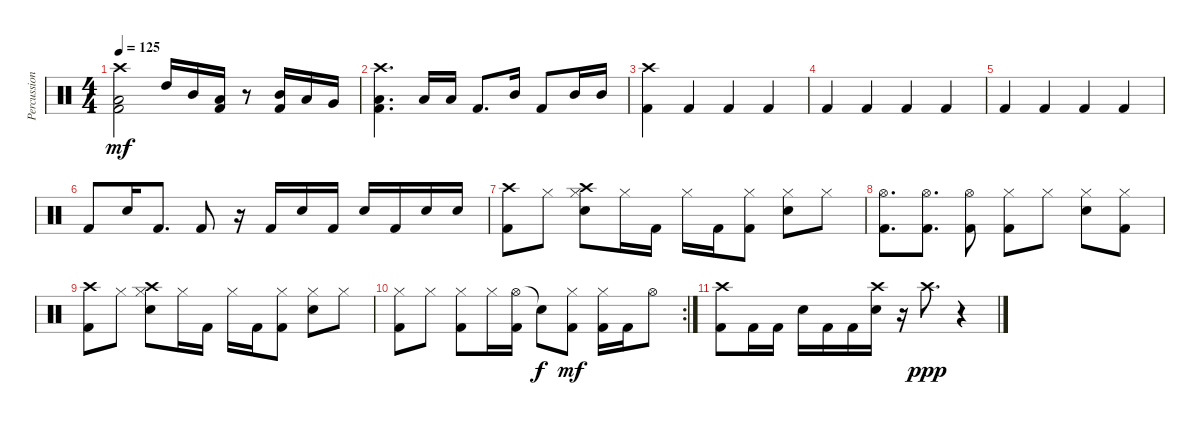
\track ("Percussion" "Percussion") {instrument percussion}
\staff {score}
\articulation defaults
\ts (4 4)
\tempo 125
\clef neutral
\ks c
("Crash high (hit)" "Low Floor Tom (hit)" "Kick (hit) 2").2{dy mf} "High Tom (hit)".16 "Mid Tom (hit)".16 ("Low Tom (hit)" "Kick (hit) 2").16 r.8 ("Mid Tom (hit)" "Kick (hit) 2").16 "Low Tom (hit)".16 "Very Low Tom (hit)".16 |
("Crash high (hit)" "Low Floor Tom (hit)" "Kick (hit) 2").4{d} "Low Tom (hit)".16 "Low Tom (hit)".16 "Kick (hit) 2".8{d} "Mid Tom (hit)".16 "Kick (hit) 2".8 "Mid Tom (hit)".16 "Mid Tom (hit)".16 |
("Crash high (hit)" "Kick (hit) 2").4 "Kick (hit) 2".4 "Kick (hit) 2".4 "Kick (hit) 2".4 |
"Kick (hit) 2".4 "Kick (hit) 2".4 "Kick (hit) 2".4 "Kick (hit) 2".4 |
"Kick (hit) 2".4 "Kick (hit) 2".4 "Kick (hit) 2".4 "Kick (hit) 2".4 |
"Kick (hit) 2".8 "Electric Snare (hit)".16 "Kick (hit) 2".8{d} "Kick (hit) 2".8 r.16 "Kick (hit) 2".16 "Electric Snare (hit)".16 "Kick (hit) 2".16 "Electric Snare (hit)".16 "Kick (hit) 2".16 "Electric Snare (hit)".16 "Electric Snare (hit)".16 |
("Crash high (hit)" "Kick (hit) 2").8 "Hi-Hat (closed)".8 ("Crash high (hit)" "Hi-Hat (closed)" "Electric Snare (hit)").8 "Hi-Hat (closed)".16 "Kick (hit) 2".16 "Hi-Hat (closed)".16 "Kick (hit) 2".16 ("Hi-Hat (closed)" "Kick (hit) 2").8 ("Hi-Hat (closed)" "Electric Snare (hit)").8 "Hi-Hat (closed)".8 |
("Hi-Hat (open)" "Kick (hit) 2").8{d} ("Hi-Hat (open)" "Kick (hit) 2").8{d} ("Hi-Hat (open)" "Kick (hit) 2").8 ("Hi-Hat (closed)" "Kick (hit) 2").8 "Hi-Hat (closed)".8 ("Hi-Hat (closed)" "Electric Snare (hit)").8 ("Hi-Hat (closed)" "Kick (hit) 2").8 |
("Crash high (hit)" "Kick (hit) 2").8 "Hi-Hat (closed)".8 ("Crash high (hit)" "Hi-Hat (closed)" "Electric Snare (hit)").8 "Hi-Hat (closed)".16 "Kick (hit) 2".16 "Hi-Hat (closed)".16 "Kick (hit) 2".16 ("Hi-Hat (closed)" "Kick (hit) 2").8 ("Hi-Hat (closed)" "Electric Snare (hit)").8 "Hi-Hat (closed)".8 |
\rc 2
("Hi-Hat (closed)" "Kick (hit) 2").8 "Hi-Hat (closed)".8 ("Hi-Hat (closed)" "Kick (hit) 2").8 "Hi-Hat (closed)".16 ("Hi-Hat (open)" "Kick (hit) 2").16 "Snare (hit)"{t}.8{dy f} ("Hi-Hat (closed)" "Kick (hit) 2").8{dy mf} ("Hi-Hat (closed)" "Kick (hit) 2").16 "Kick (hit) 2".16 "Hi-Hat (open)".8 |
("Crash high (hit)" "Kick (hit) 2").8 "Kick (hit) 2".16 "Kick (hit) 2".16 "Electric Snare (hit)".16 "Kick (hit) 2".16 "Kick (hit) 2".16 ("Crash high (hit)" "Electric Snare (hit)").16 r.16 "Crash high (hit)".8{d dy ppp} r.4
